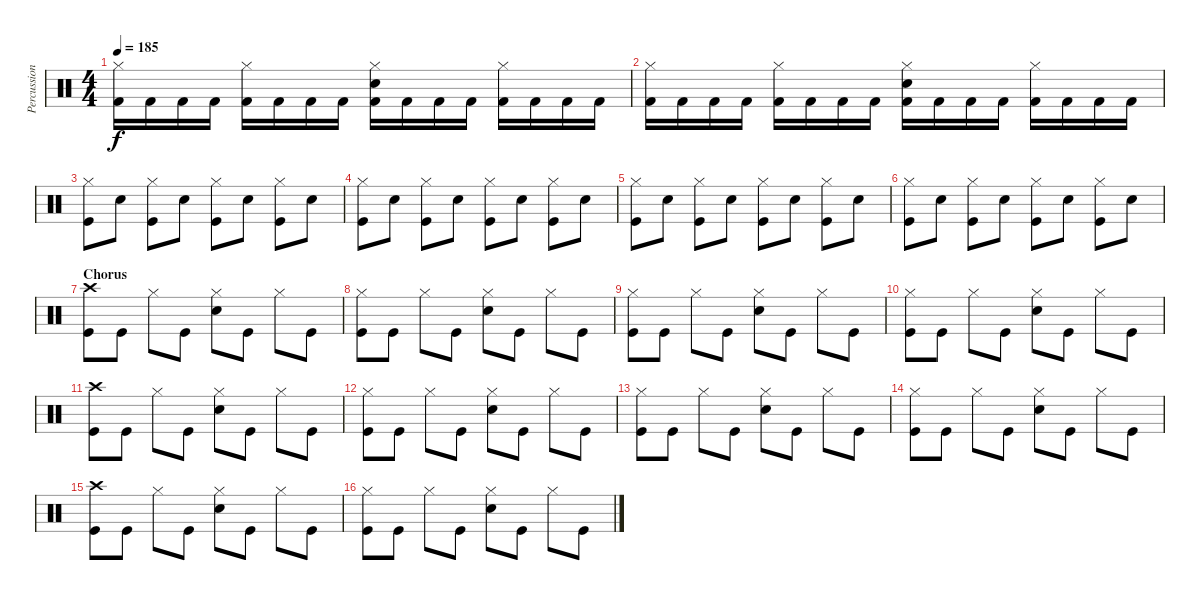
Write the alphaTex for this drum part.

\track ("Percussion" "Percussion") {instrument percussion}
\staff {score}
\articulation defaults
\ts (4 4)
\tempo 185
\clef neutral
\ks c
("Hi-Hat (closed)" "Kick (hit) 2").16{dy f} "Kick (hit) 2".16 "Kick (hit) 2".16 "Kick (hit) 2".16 ("Hi-Hat (closed)" "Kick (hit) 2").16 "Kick (hit) 2".16 "Kick (hit) 2".16 "Kick (hit) 2".16 ("Hi-Hat (closed)" "Snare (hit) 2" "Kick (hit) 2").16 "Kick (hit) 2".16 "Kick (hit) 2".16 "Kick (hit) 2".16 ("Hi-Hat (closed)" "Kick (hit) 2").16 "Kick (hit) 2".16 "Kick (hit) 2".16 "Kick (hit) 2".16 |
("Hi-Hat (closed)" "Kick (hit) 2").16 "Kick (hit) 2".16 "Kick (hit) 2".16 "Kick (hit) 2".16 ("Hi-Hat (closed)" "Kick (hit) 2").16 "Kick (hit) 2".16 "Kick (hit) 2".16 "Kick (hit) 2".16 ("Hi-Hat (closed)" "Snare (hit) 2" "Kick (hit) 2").16 "Kick (hit) 2".16 "Kick (hit) 2".16 "Kick (hit) 2".16 ("Hi-Hat (closed)" "Kick (hit) 2").16 "Kick (hit) 2".16 "Kick (hit) 2".16 "Kick (hit) 2".16 |
("Hi-Hat (closed)" "Kick (hit)").8 "Snare (hit) 2".8 ("Hi-Hat (closed)" "Kick (hit)").8 "Snare (hit) 2".8 ("Hi-Hat (closed)" "Kick (hit)").8 "Snare (hit) 2".8 ("Hi-Hat (closed)" "Kick (hit)").8 "Snare (hit) 2".8 |
("Hi-Hat (closed)" "Kick (hit)").8 "Snare (hit) 2".8 ("Hi-Hat (closed)" "Kick (hit)").8 "Snare (hit) 2".8 ("Hi-Hat (closed)" "Kick (hit)").8 "Snare (hit) 2".8 ("Hi-Hat (closed)" "Kick (hit)").8 "Snare (hit) 2".8 |
("Hi-Hat (closed)" "Kick (hit)").8 "Snare (hit) 2".8 ("Hi-Hat (closed)" "Kick (hit)").8 "Snare (hit) 2".8 ("Hi-Hat (closed)" "Kick (hit)").8 "Snare (hit) 2".8 ("Hi-Hat (closed)" "Kick (hit)").8 "Snare (hit) 2".8 |
("Hi-Hat (closed)" "Kick (hit)").8 "Snare (hit) 2".8 ("Hi-Hat (closed)" "Kick (hit)").8 "Snare (hit) 2".8 ("Hi-Hat (closed)" "Kick (hit)").8 "Snare (hit) 2".8 ("Hi-Hat (closed)" "Kick (hit)").8 "Snare (hit) 2".8 |
\section ("" "Chorus")
("Crash high (hit)" "Kick (hit)").8 "Kick (hit)".8 "Hi-Hat (closed)".8 "Kick (hit)".8 ("Hi-Hat (closed)" "Snare (hit) 2").8 "Kick (hit)".8 "Hi-Hat (closed)".8 "Kick (hit)".8 |
("Hi-Hat (closed)" "Kick (hit)").8 "Kick (hit)".8 "Hi-Hat (closed)".8 "Kick (hit)".8 ("Hi-Hat (closed)" "Snare (hit) 2").8 "Kick (hit)".8 "Hi-Hat (closed)".8 "Kick (hit)".8 |
("Hi-Hat (closed)" "Kick (hit)").8 "Kick (hit)".8 "Hi-Hat (closed)".8 "Kick (hit)".8 ("Hi-Hat (closed)" "Snare (hit) 2").8 "Kick (hit)".8 "Hi-Hat (closed)".8 "Kick (hit)".8 |
("Hi-Hat (closed)" "Kick (hit)").8 "Kick (hit)".8 "Hi-Hat (closed)".8 "Kick (hit)".8 ("Hi-Hat (closed)" "Snare (hit) 2").8 "Kick (hit)".8 "Hi-Hat (closed)".8 "Kick (hit)".8 |
("Crash high (hit)" "Kick (hit)").8 "Kick (hit)".8 "Hi-Hat (closed)".8 "Kick (hit)".8 ("Hi-Hat (closed)" "Snare (hit) 2").8 "Kick (hit)".8 "Hi-Hat (closed)".8 "Kick (hit)".8 |
("Hi-Hat (closed)" "Kick (hit)").8 "Kick (hit)".8 "Hi-Hat (closed)".8 "Kick (hit)".8 ("Hi-Hat (closed)" "Snare (hit) 2").8 "Kick (hit)".8 "Hi-Hat (closed)".8 "Kick (hit)".8 |
("Hi-Hat (closed)" "Kick (hit)").8 "Kick (hit)".8 "Hi-Hat (closed)".8 "Kick (hit)".8 ("Hi-Hat (closed)" "Snare (hit) 2").8 "Kick (hit)".8 "Hi-Hat (closed)".8 "Kick (hit)".8 |
("Hi-Hat (closed)" "Kick (hit)").8 "Kick (hit)".8 "Hi-Hat (closed)".8 "Kick (hit)".8 ("Hi-Hat (closed)" "Snare (hit) 2").8 "Kick (hit)".8 "Hi-Hat (closed)".8 "Kick (hit)".8 |
("Crash high (hit)" "Kick (hit)").8 "Kick (hit)".8 "Hi-Hat (closed)".8 "Kick (hit)".8 ("Hi-Hat (closed)" "Snare (hit) 2").8 "Kick (hit)".8 "Hi-Hat (closed)".8 "Kick (hit)".8 |
("Hi-Hat (closed)" "Kick (hit)").8 "Kick (hit)".8 "Hi-Hat (closed)".8 "Kick (hit)".8 ("Hi-Hat (closed)" "Snare (hit) 2").8 "Kick (hit)".8 "Hi-Hat (closed)".8 "Kick (hit)".8
